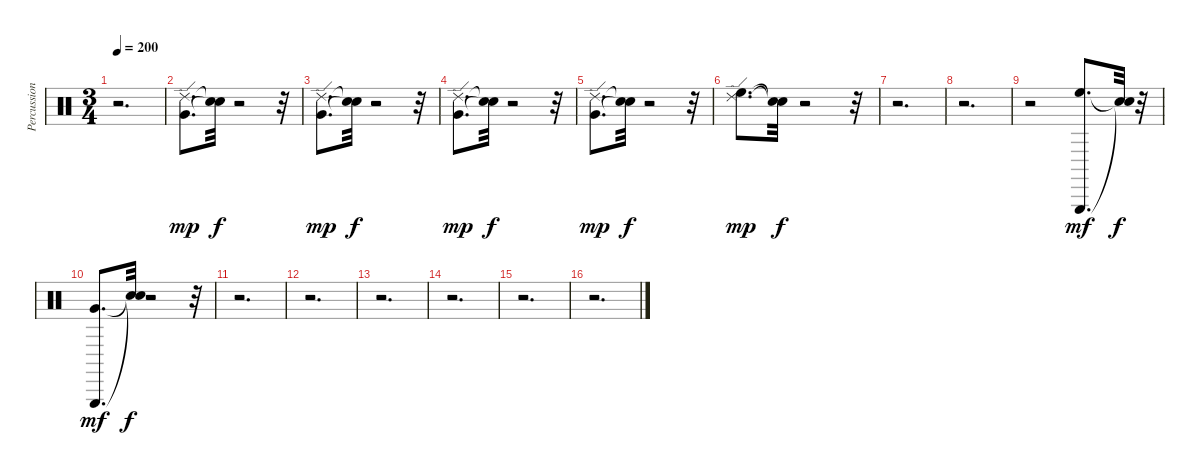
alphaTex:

\track ("Percussion." "Percussion") {instrument percussion}
\staff {score}
\articulation defaults
\ts (3 4)
\tempo 200
\clef neutral
\ks c
r.2{d dy f} |
("Ride (edge) 2" "Very Low Tom (hit)").8{d dy mp} ("Snare (hit)"{t} "Snare (hit)"{t}).32{dy f} r.2 r.32 |
("Ride (edge) 2" "Very Low Tom (hit)").8{d dy mp} ("Snare (hit)"{t} "Snare (hit)"{t}).32{dy f} r.2 r.32 |
("Ride (edge) 2" "Very Low Tom (hit)").8{d dy mp} ("Snare (hit)"{t} "Snare (hit)"{t}).32{dy f} r.2 r.32 |
("Ride (edge) 2" "Very Low Tom (hit)").8{d dy mp} ("Snare (hit)"{t} "Snare (hit)"{t}).32{dy f} r.2 r.32 |
("Ride (edge) 2" "High Floor Tom (hit)").8{d dy mp} ("Snare (hit)"{t} "Snare (hit)"{t}).32{dy f} r.2 r.32 |
r.2{d} |
r.2{d} |
r.2 ("Triangle (hit)" "High Floor Tom (hit)").8{d dy mf} ("Snare (hit)"{t} "Snare (hit)"{t}).32{dy f} r.32 |
("Triangle (hit)" "Very Low Tom (hit)").8{d dy mf} ("Snare (hit)"{t} "Snare (hit)"{t}).32{dy f} r.2 r.32 |
r.2{d} |
r.2{d} |
r.2{d} |
r.2{d} |
r.2{d} |
r.2{d}
